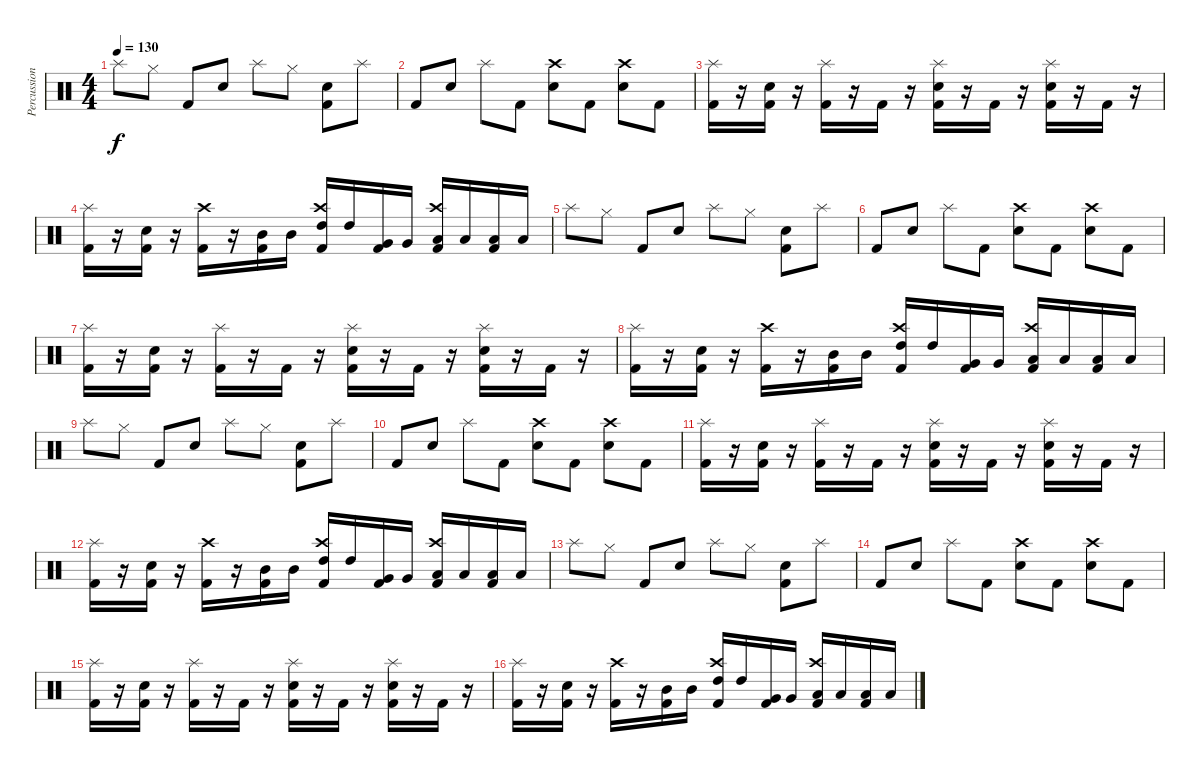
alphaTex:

\track ("Percussion" "Percussion") {instrument percussion}
\staff {score}
\articulation defaults
\ts (4 4)
\tempo 130
\clef neutral
\ks c "Splash (hit)".8{dy f} "Hi-Hat (closed)".8 "Kick (hit) 2".8 "Snare (hit) 2".8 "Splash (hit)".8 "Hi-Hat (closed)".8
("Snare (hit) 2" "Kick (hit) 2").8 "Splash (hit)".8 |
"Kick (hit) 2".8 "Snare (hit) 2".8 "Splash (hit)".8 "Kick (hit) 2".8 ("Crash high (hit)" "Snare (hit) 2").8 "Kick (hit) 2".8 ("Crash high (hit)" "Snare (hit) 2").8 "Kick (hit) 2".8 |
("Splash (hit)" "Kick (hit) 2").16 r.16 ("Snare (hit) 2" "Kick (hit) 2").16 r.16 ("Splash (hit)" "Kick (hit) 2").16 r.16 "Kick (hit) 2".16 r.16 ("Splash (hit)" "Snare (hit) 2" "Kick (hit) 2").16 r.16 "Kick (hit) 2".16 r.16 ("Splash (hit)" "Snare (hit) 2" "Kick (hit) 2").16 r.16 "Kick (hit) 2".16 r.16 |
("Splash (hit)" "Kick (hit) 2").16 r.16 ("Snare (hit) 2" "Kick (hit) 2").16 r.16 ("Crash high (hit)" "Kick (hit) 2").16 r.16 ("Mid Tom (hit)" "Kick (hit) 2").16 "Mid Tom (hit)".16 ("Crash high (hit)" "High Tom (hit)" "Kick (hit) 2").16 "High Tom (hit)".16 ("Very Low Tom (hit)" "Kick (hit) 2").16 "Very Low Tom (hit)".16 ("Crash high (hit)" "Low Tom (hit)" "Kick (hit) 2").16 "Low Tom (hit)".16 ("Low Floor Tom (hit)" "Kick (hit) 2").16 "Low Floor Tom (hit)".16 |
"Splash (hit)".8 "Hi-Hat (closed)".8 "Kick (hit) 2".8 "Snare (hit) 2".8 "Splash (hit)".8 "Hi-Hat (closed)".8 ("Snare (hit) 2" "Kick (hit) 2").8 "Splash (hit)".8 |
"Kick (hit) 2".8 "Snare (hit) 2".8 "Splash (hit)".8 "Kick (hit) 2".8 ("Crash high (hit)" "Snare (hit) 2").8 "Kick (hit) 2".8 ("Crash high (hit)" "Snare (hit) 2").8 "Kick (hit) 2".8 |
("Splash (hit)" "Kick (hit) 2").16 r.16 ("Snare (hit) 2" "Kick (hit) 2").16 r.16 ("Splash (hit)" "Kick (hit) 2").16 r.16 "Kick (hit) 2".16 r.16 ("Splash (hit)" "Snare (hit) 2" "Kick (hit) 2").16 r.16 "Kick (hit) 2".16 r.16 ("Splash (hit)" "Snare (hit) 2" "Kick (hit) 2").16 r.16 "Kick (hit) 2".16 r.16 |
("Splash (hit)" "Kick (hit) 2").16 r.16 ("Snare (hit) 2" "Kick (hit) 2").16 r.16 ("Crash high (hit)" "Kick (hit) 2").16 r.16 ("Mid Tom (hit)" "Kick (hit) 2").16 "Mid Tom (hit)".16 ("Crash high (hit)" "High Tom (hit)" "Kick (hit) 2").16 "High Tom (hit)".16 ("Very Low Tom (hit)" "Kick (hit) 2").16 "Very Low Tom (hit)".16 ("Crash high (hit)" "Low Tom (hit)" "Kick (hit) 2").16 "Low Tom (hit)".16 ("Low Floor Tom (hit)" "Kick (hit) 2").16 "Low Floor Tom (hit)".16 |
"Splash (hit)".8 "Hi-Hat (closed)".8 "Kick (hit) 2".8 "Snare (hit) 2".8 "Splash (hit)".8 "Hi-Hat (closed)".8 ("Snare (hit) 2" "Kick (hit) 2").8 "Splash (hit)".8 |
"Kick (hit) 2".8 "Snare (hit) 2".8 "Splash (hit)".8 "Kick (hit) 2".8 ("Crash high (hit)" "Snare (hit) 2").8 "Kick (hit) 2".8 ("Crash high (hit)" "Snare (hit) 2").8 "Kick (hit) 2".8 |
("Splash (hit)" "Kick (hit) 2").16 r.16 ("Snare (hit) 2" "Kick (hit) 2").16 r.16 ("Splash (hit)" "Kick (hit) 2").16 r.16 "Kick (hit) 2".16 r.16 ("Splash (hit)" "Snare (hit) 2" "Kick (hit) 2").16 r.16 "Kick (hit) 2".16 r.16 ("Splash (hit)" "Snare (hit) 2" "Kick (hit) 2").16 r.16 "Kick (hit) 2".16 r.16 |
("Splash (hit)" "Kick (hit) 2").16 r.16 ("Snare (hit) 2" "Kick (hit) 2").16 r.16 ("Crash high (hit)" "Kick (hit) 2").16 r.16 ("Mid Tom (hit)" "Kick (hit) 2").16 "Mid Tom (hit)".16 ("Crash high (hit)" "High Tom (hit)" "Kick (hit) 2").16 "High Tom (hit)".16 ("Very Low Tom (hit)" "Kick (hit) 2").16 "Very Low Tom (hit)".16 ("Crash high (hit)" "Low Tom (hit)" "Kick (hit) 2").16 "Low Tom (hit)".16 ("Low Floor Tom (hit)" "Kick (hit) 2").16 "Low Floor Tom (hit)".16 |
"Splash (hit)".8 "Hi-Hat (closed)".8 "Kick (hit) 2".8 "Snare (hit) 2".8 "Splash (hit)".8 "Hi-Hat (closed)".8 ("Snare (hit) 2" "Kick (hit) 2").8 "Splash (hit)".8 |
"Kick (hit) 2".8 "Snare (hit) 2".8 "Splash (hit)".8 "Kick (hit) 2".8 ("Crash high (hit)" "Snare (hit) 2").8 "Kick (hit) 2".8 ("Crash high (hit)" "Snare (hit) 2").8 "Kick (hit) 2".8 |
("Splash (hit)" "Kick (hit) 2").16 r.16 ("Snare (hit) 2" "Kick (hit) 2").16 r.16 ("Splash (hit)" "Kick (hit) 2").16 r.16 "Kick (hit) 2".16 r.16 ("Splash (hit)" "Snare (hit) 2" "Kick (hit) 2").16 r.16 "Kick (hit) 2".16 r.16 ("Splash (hit)" "Snare (hit) 2" "Kick (hit) 2").16 r.16 "Kick (hit) 2".16 r.16 |
("Splash (hit)" "Kick (hit) 2").16 r.16 ("Snare (hit) 2" "Kick (hit) 2").16 r.16 ("Crash high (hit)" "Kick (hit) 2").16 r.16 ("Mid Tom (hit)" "Kick (hit) 2").16 "Mid Tom (hit)".16 ("Crash high (hit)" "High Tom (hit)" "Kick (hit) 2").16 "High Tom (hit)".16 ("Very Low Tom (hit)" "Kick (hit) 2").16 "Very Low Tom (hit)".16 ("Crash high (hit)" "Low Tom (hit)" "Kick (hit) 2").16 "Low Tom (hit)".16 ("Low Floor Tom (hit)" "Kick (hit) 2").16 "Low Floor Tom (hit)".16
